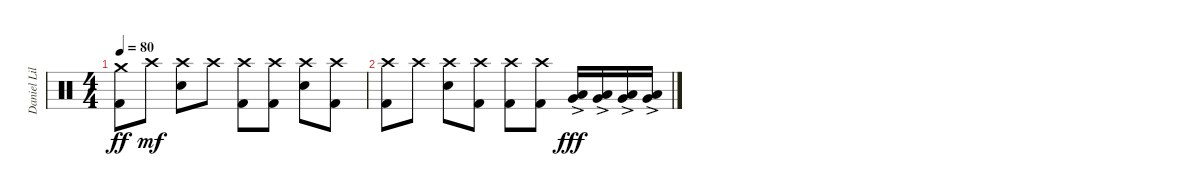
\track ("Daniel Liljekvist (Drums)" "Daniel Lil") {instrument percussion}
\staff {score}
\articulation defaults
\ts (4 4)
\tempo 80
\clef neutral
\ks c
("Kick (hit) 2" "Crash medium (hit)").8{dy ff} "Crash high (hit)".8{dy mf} ("Electric Snare (hit)" "Crash high (hit)").8 "Crash high (hit)".8 ("Kick (hit) 2" "Crash high (hit)").8 ("Kick (hit) 2" "Crash high (hit)").8 ("Electric Snare (hit)" "Crash high (hit)").8 ("Kick (hit) 2" "Crash high (hit)").8 |
("Kick (hit) 2" "Crash high (hit)").8 "Crash high (hit)".8 ("Electric Snare (hit)" "Crash high (hit)").8 ("Kick (hit) 2" "Crash high (hit)").8 ("Kick (hit) 2" "Crash high (hit)").8 ("Kick (hit) 2" "Crash high (hit)").8 ("Very Low Tom (hit)"{ac} "Low Floor Tom (hit)"{ac}).16{dy fff} ("Very Low Tom (hit)"{ac} "Low Floor Tom (hit)"{ac}).16 ("Very Low Tom (hit)"{ac} "Low Floor Tom (hit)"{ac}).16 ("Very Low Tom (hit)"{ac} "Low Floor Tom (hit)"{ac}).16
